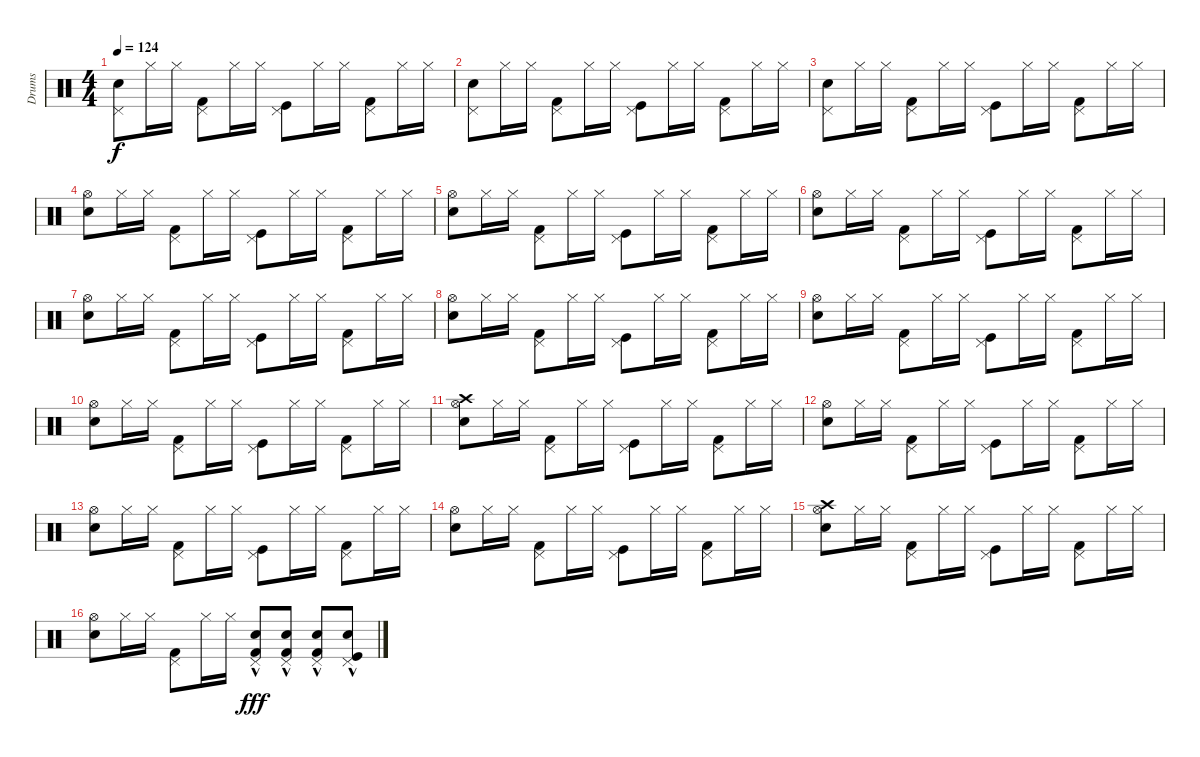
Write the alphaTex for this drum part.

\track ("Drums" "Drums") {instrument percussion}
\staff {score}
\articulation defaults
\ts (4 4)
\tempo 124
\clef neutral
\ks c
("Pedal Hi-Hat (hit)" "Snare (hit) 2").8{dy f} "Hi-Hat (closed)".16 "Hi-Hat (closed)".16 ("Pedal Hi-Hat (hit)" "Kick (hit) 2").8 "Hi-Hat (closed)".16 "Hi-Hat (closed)".16 ("Pedal Hi-Hat (hit)" "Kick (hit)").8 "Hi-Hat (closed)".16 "Hi-Hat (closed)".16 ("Pedal Hi-Hat (hit)" "Kick (hit) 2").8 "Hi-Hat (closed)".16 "Hi-Hat (closed)".16 |
("Pedal Hi-Hat (hit)" "Snare (hit) 2").8 "Hi-Hat (closed)".16 "Hi-Hat (closed)".16 ("Pedal Hi-Hat (hit)" "Kick (hit) 2").8 "Hi-Hat (closed)".16 "Hi-Hat (closed)".16 ("Pedal Hi-Hat (hit)" "Kick (hit)").8 "Hi-Hat (closed)".16 "Hi-Hat (closed)".16 ("Pedal Hi-Hat (hit)" "Kick (hit) 2").8 "Hi-Hat (closed)".16 "Hi-Hat (closed)".16 |
("Pedal Hi-Hat (hit)" "Snare (hit) 2").8 "Hi-Hat (closed)".16 "Hi-Hat (closed)".16 ("Pedal Hi-Hat (hit)" "Kick (hit) 2").8 "Hi-Hat (closed)".16 "Hi-Hat (closed)".16 ("Pedal Hi-Hat (hit)" "Kick (hit)").8 "Hi-Hat (closed)".16 "Hi-Hat (closed)".16 ("Pedal Hi-Hat (hit)" "Kick (hit) 2").8 "Hi-Hat (closed)".16 "Hi-Hat (closed)".16 |
("Hi-Hat (open)" "Snare (hit) 2").8 "Hi-Hat (closed)".16 "Hi-Hat (closed)".16 ("Pedal Hi-Hat (hit)" "Kick (hit) 2").8 "Hi-Hat (closed)".16 "Hi-Hat (closed)".16 ("Pedal Hi-Hat (hit)" "Kick (hit)").8 "Hi-Hat (closed)".16 "Hi-Hat (closed)".16 ("Pedal Hi-Hat (hit)" "Kick (hit) 2").8 "Hi-Hat (closed)".16 "Hi-Hat (closed)".16 |
("Hi-Hat (open)" "Snare (hit) 2").8 "Hi-Hat (closed)".16 "Hi-Hat (closed)".16 ("Pedal Hi-Hat (hit)" "Kick (hit) 2").8 "Hi-Hat (closed)".16 "Hi-Hat (closed)".16 ("Pedal Hi-Hat (hit)" "Kick (hit)").8 "Hi-Hat (closed)".16 "Hi-Hat (closed)".16 ("Pedal Hi-Hat (hit)" "Kick (hit) 2").8 "Hi-Hat (closed)".16 "Hi-Hat (closed)".16 |
("Hi-Hat (open)" "Snare (hit) 2").8 "Hi-Hat (closed)".16 "Hi-Hat (closed)".16 ("Pedal Hi-Hat (hit)" "Kick (hit) 2").8 "Hi-Hat (closed)".16 "Hi-Hat (closed)".16 ("Pedal Hi-Hat (hit)" "Kick (hit)").8 "Hi-Hat (closed)".16 "Hi-Hat (closed)".16 ("Pedal Hi-Hat (hit)" "Kick (hit) 2").8 "Hi-Hat (closed)".16 "Hi-Hat (closed)".16 |
("Hi-Hat (open)" "Snare (hit) 2").8 "Hi-Hat (closed)".16 "Hi-Hat (closed)".16 ("Pedal Hi-Hat (hit)" "Kick (hit) 2").8 "Hi-Hat (closed)".16 "Hi-Hat (closed)".16 ("Pedal Hi-Hat (hit)" "Kick (hit)").8 "Hi-Hat (closed)".16 "Hi-Hat (closed)".16 ("Pedal Hi-Hat (hit)" "Kick (hit) 2").8 "Hi-Hat (closed)".16 "Hi-Hat (closed)".16 |
("Hi-Hat (open)" "Snare (hit) 2").8 "Hi-Hat (closed)".16 "Hi-Hat (closed)".16 ("Pedal Hi-Hat (hit)" "Kick (hit) 2").8 "Hi-Hat (closed)".16 "Hi-Hat (closed)".16 ("Pedal Hi-Hat (hit)" "Kick (hit)").8 "Hi-Hat (closed)".16 "Hi-Hat (closed)".16 ("Pedal Hi-Hat (hit)" "Kick (hit) 2").8 "Hi-Hat (closed)".16 "Hi-Hat (closed)".16 |
("Hi-Hat (open)" "Snare (hit) 2").8 "Hi-Hat (closed)".16 "Hi-Hat (closed)".16 ("Pedal Hi-Hat (hit)" "Kick (hit) 2").8 "Hi-Hat (closed)".16 "Hi-Hat (closed)".16 ("Pedal Hi-Hat (hit)" "Kick (hit)").8 "Hi-Hat (closed)".16 "Hi-Hat (closed)".16 ("Pedal Hi-Hat (hit)" "Kick (hit) 2").8 "Hi-Hat (closed)".16 "Hi-Hat (closed)".16 |
("Hi-Hat (open)" "Snare (hit) 2").8 "Hi-Hat (closed)".16 "Hi-Hat (closed)".16 ("Pedal Hi-Hat (hit)" "Kick (hit) 2").8 "Hi-Hat (closed)".16 "Hi-Hat (closed)".16 ("Pedal Hi-Hat (hit)" "Kick (hit)").8 "Hi-Hat (closed)".16 "Hi-Hat (closed)".16 ("Pedal Hi-Hat (hit)" "Kick (hit) 2").8 "Hi-Hat (closed)".16 "Hi-Hat (closed)".16 |
("Crash high (hit)" "Hi-Hat (open)" "Snare (hit) 2").8 "Hi-Hat (closed)".16 "Hi-Hat (closed)".16 ("Pedal Hi-Hat (hit)" "Kick (hit) 2").8 "Hi-Hat (closed)".16 "Hi-Hat (closed)".16 ("Pedal Hi-Hat (hit)" "Kick (hit)").8 "Hi-Hat (closed)".16 "Hi-Hat (closed)".16 ("Pedal Hi-Hat (hit)" "Kick (hit) 2").8 "Hi-Hat (closed)".16 "Hi-Hat (closed)".16 |
("Hi-Hat (open)" "Snare (hit) 2").8 "Hi-Hat (closed)".16 "Hi-Hat (closed)".16 ("Pedal Hi-Hat (hit)" "Kick (hit) 2").8 "Hi-Hat (closed)".16 "Hi-Hat (closed)".16 ("Pedal Hi-Hat (hit)" "Kick (hit)").8 "Hi-Hat (closed)".16 "Hi-Hat (closed)".16 ("Pedal Hi-Hat (hit)" "Kick (hit) 2").8 "Hi-Hat (closed)".16 "Hi-Hat (closed)".16 |
("Hi-Hat (open)" "Snare (hit) 2").8 "Hi-Hat (closed)".16 "Hi-Hat (closed)".16 ("Pedal Hi-Hat (hit)" "Kick (hit) 2").8 "Hi-Hat (closed)".16 "Hi-Hat (closed)".16 ("Pedal Hi-Hat (hit)" "Kick (hit)").8 "Hi-Hat (closed)".16 "Hi-Hat (closed)".16 ("Pedal Hi-Hat (hit)" "Kick (hit) 2").8 "Hi-Hat (closed)".16 "Hi-Hat (closed)".16 |
("Hi-Hat (open)" "Snare (hit) 2").8 "Hi-Hat (closed)".16 "Hi-Hat (closed)".16 ("Pedal Hi-Hat (hit)" "Kick (hit) 2").8 "Hi-Hat (closed)".16 "Hi-Hat (closed)".16 ("Pedal Hi-Hat (hit)" "Kick (hit)").8 "Hi-Hat (closed)".16 "Hi-Hat (closed)".16 ("Pedal Hi-Hat (hit)" "Kick (hit) 2").8 "Hi-Hat (closed)".16 "Hi-Hat (closed)".16 |
("Crash high (hit)" "Hi-Hat (open)" "Snare (hit) 2").8 "Hi-Hat (closed)".16 "Hi-Hat (closed)".16 ("Pedal Hi-Hat (hit)" "Kick (hit) 2").8 "Hi-Hat (closed)".16 "Hi-Hat (closed)".16 ("Pedal Hi-Hat (hit)" "Kick (hit)").8 "Hi-Hat (closed)".16 "Hi-Hat (closed)".16 ("Pedal Hi-Hat (hit)" "Kick (hit) 2").8 "Hi-Hat (closed)".16 "Hi-Hat (closed)".16 |
("Hi-Hat (open)" "Snare (hit) 2").8 "Hi-Hat (closed)".16 "Hi-Hat (closed)".16 ("Pedal Hi-Hat (hit)" "Kick (hit) 2").8 "Hi-Hat (closed)".16 "Hi-Hat (closed)".16 ("Snare (hit) 2"{hac} "Pedal Hi-Hat (hit)" "Kick (hit) 2"{hac}).8{dy fff} ("Snare (hit) 2"{hac} "Pedal Hi-Hat (hit)" "Kick (hit) 2"{hac}).8 ("Snare (hit) 2"{hac} "Pedal Hi-Hat (hit)" "Kick (hit) 2"{hac}).8 ("Snare (hit) 2"{hac} "Pedal Hi-Hat (hit)" "Kick (hit)"{hac}).8
